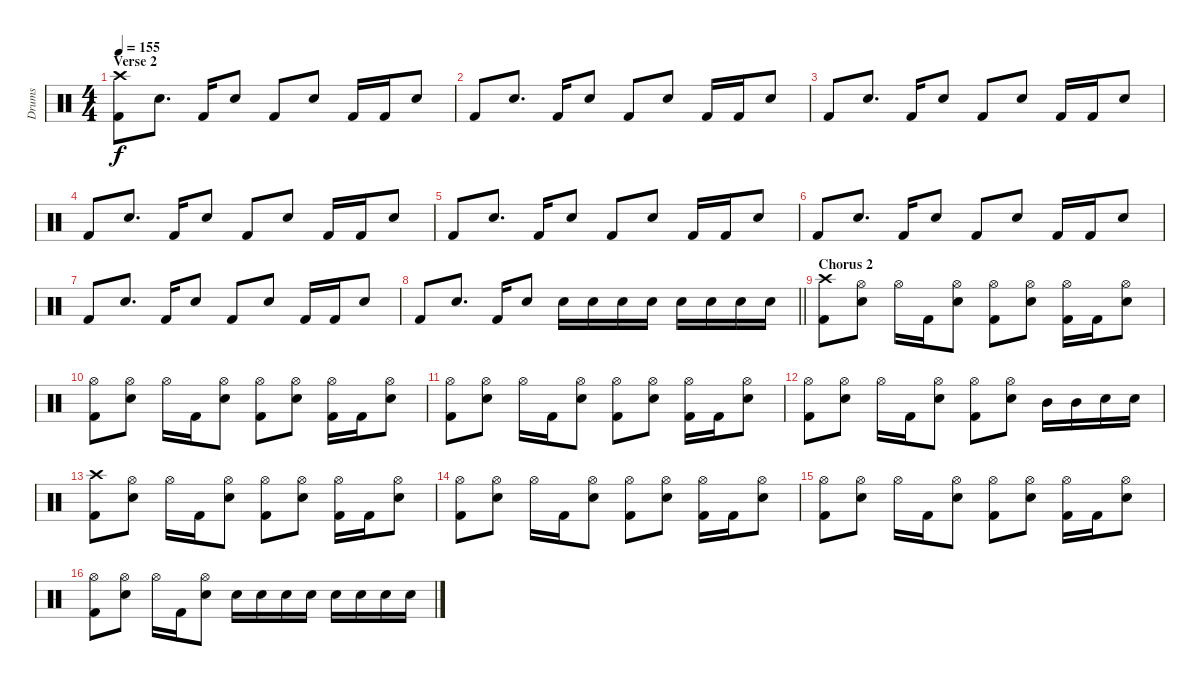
\track ("Drums" "Drums") {instrument percussion}
\staff {score}
\articulation defaults
\ts (4 4)
\section ("" "Verse 2")
\tempo 155
\clef neutral
\ks c
("Crash high (hit)" "Kick (hit) 2").8{dy f} "Electric Snare (hit)".8{d} "Kick (hit) 2".16 "Electric Snare (hit)".8 "Kick (hit) 2".8 "Electric Snare (hit)".8 "Kick (hit) 2".16 "Kick (hit) 2".16 "Electric Snare (hit)".8 |
"Kick (hit) 2".8 "Electric Snare (hit)".8{d} "Kick (hit) 2".16 "Electric Snare (hit)".8 "Kick (hit) 2".8 "Electric Snare (hit)".8 "Kick (hit) 2".16 "Kick (hit) 2".16 "Electric Snare (hit)".8 |
"Kick (hit) 2".8 "Electric Snare (hit)".8{d} "Kick (hit) 2".16 "Electric Snare (hit)".8 "Kick (hit) 2".8 "Electric Snare (hit)".8 "Kick (hit) 2".16 "Kick (hit) 2".16 "Electric Snare (hit)".8 |
"Kick (hit) 2".8 "Electric Snare (hit)".8{d} "Kick (hit) 2".16 "Electric Snare (hit)".8 "Kick (hit) 2".8 "Electric Snare (hit)".8 "Kick (hit) 2".16 "Kick (hit) 2".16 "Electric Snare (hit)".8 |
"Kick (hit) 2".8 "Electric Snare (hit)".8{d} "Kick (hit) 2".16 "Electric Snare (hit)".8 "Kick (hit) 2".8 "Electric Snare (hit)".8 "Kick (hit) 2".16 "Kick (hit) 2".16 "Electric Snare (hit)".8 |
"Kick (hit) 2".8 "Electric Snare (hit)".8{d} "Kick (hit) 2".16 "Electric Snare (hit)".8 "Kick (hit) 2".8 "Electric Snare (hit)".8 "Kick (hit) 2".16 "Kick (hit) 2".16 "Electric Snare (hit)".8 |
"Kick (hit) 2".8 "Electric Snare (hit)".8{d} "Kick (hit) 2".16 "Electric Snare (hit)".8 "Kick (hit) 2".8 "Electric Snare (hit)".8 "Kick (hit) 2".16 "Kick (hit) 2".16 "Electric Snare (hit)".8 |
\barLineRight lightlight "Kick (hit) 2".8 "Electric Snare (hit)".8{d} "Kick (hit) 2".16 "Electric Snare (hit)".8 "Electric Snare (hit)".16 "Electric Snare (hit)".16 "Electric Snare (hit)".16 "Electric Snare (hit)".16 "Electric Snare (hit)".16 "Electric Snare (hit)".16 "Electric Snare (hit)".16 "Electric Snare (hit)".16
|
\section ("" "Chorus 2")
("Crash high (hit)" "Kick (hit) 2").8 ("Hi-Hat (open)" "Electric Snare (hit)").8 "Hi-Hat (open)".16 "Kick (hit) 2".16 ("Hi-Hat (open)" "Electric Snare (hit)").8 ("Hi-Hat (open)" "Kick (hit) 2").8 ("Hi-Hat (open)" "Electric Snare (hit)").8 ("Hi-Hat (open)" "Kick (hit) 2").16 "Kick (hit) 2".16 ("Hi-Hat (open)" "Electric Snare (hit)").8 |
("Hi-Hat (open)" "Kick (hit) 2").8 ("Hi-Hat (open)" "Electric Snare (hit)").8 "Hi-Hat (open)".16 "Kick (hit) 2".16 ("Hi-Hat (open)" "Electric Snare (hit)").8 ("Hi-Hat (open)" "Kick (hit) 2").8 ("Hi-Hat (open)" "Electric Snare (hit)").8 ("Hi-Hat (open)" "Kick (hit) 2").16 "Kick (hit) 2".16 ("Hi-Hat (open)" "Electric Snare (hit)").8 |
("Hi-Hat (open)" "Kick (hit) 2").8 ("Hi-Hat (open)" "Electric Snare (hit)").8 "Hi-Hat (open)".16 "Kick (hit) 2".16 ("Hi-Hat (open)" "Electric Snare (hit)").8 ("Hi-Hat (open)" "Kick (hit) 2").8 ("Hi-Hat (open)" "Electric Snare (hit)").8 ("Hi-Hat (open)" "Kick (hit) 2").16 "Kick (hit) 2".16 ("Hi-Hat (open)" "Electric Snare (hit)").8 |
("Hi-Hat (open)" "Kick (hit) 2").8 ("Hi-Hat (open)" "Electric Snare (hit)").8 "Hi-Hat (open)".16 "Kick (hit) 2".16 ("Hi-Hat (open)" "Electric Snare (hit)").8 ("Hi-Hat (open)" "Kick (hit) 2").8 ("Hi-Hat (open)" "Electric Snare (hit)").8 "Mid Tom (hit)".16 "Mid Tom (hit)".16 "Electric Snare (hit)".16 "Electric Snare (hit)".16 |
("Crash high (hit)" "Kick (hit) 2").8 ("Hi-Hat (open)" "Electric Snare (hit)").8 "Hi-Hat (open)".16 "Kick (hit) 2".16 ("Hi-Hat (open)" "Electric Snare (hit)").8 ("Hi-Hat (open)" "Kick (hit) 2").8 ("Hi-Hat (open)" "Electric Snare (hit)").8 ("Hi-Hat (open)" "Kick (hit) 2").16 "Kick (hit) 2".16 ("Hi-Hat (open)" "Electric Snare (hit)").8 |
("Hi-Hat (open)" "Kick (hit) 2").8 ("Hi-Hat (open)" "Electric Snare (hit)").8 "Hi-Hat (open)".16 "Kick (hit) 2".16 ("Hi-Hat (open)" "Electric Snare (hit)").8 ("Hi-Hat (open)" "Kick (hit) 2").8 ("Hi-Hat (open)" "Electric Snare (hit)").8 ("Hi-Hat (open)" "Kick (hit) 2").16 "Kick (hit) 2".16 ("Hi-Hat (open)" "Electric Snare (hit)").8 |
("Hi-Hat (open)" "Kick (hit) 2").8 ("Hi-Hat (open)" "Electric Snare (hit)").8 "Hi-Hat (open)".16 "Kick (hit) 2".16 ("Hi-Hat (open)" "Electric Snare (hit)").8 ("Hi-Hat (open)" "Kick (hit) 2").8 ("Hi-Hat (open)" "Electric Snare (hit)").8 ("Hi-Hat (open)" "Kick (hit) 2").16 "Kick (hit) 2".16 ("Hi-Hat (open)" "Electric Snare (hit)").8 |
("Hi-Hat (open)" "Kick (hit) 2").8 ("Hi-Hat (open)" "Electric Snare (hit)").8 "Hi-Hat (open)".16 "Kick (hit) 2".16 ("Hi-Hat (open)" "Electric Snare (hit)").8 "Electric Snare (hit)".16 "Electric Snare (hit)".16 "Electric Snare (hit)".16 "Electric Snare (hit)".16 "Electric Snare (hit)".16 "Electric Snare (hit)".16 "Electric Snare (hit)".16 "Electric Snare (hit)".16
